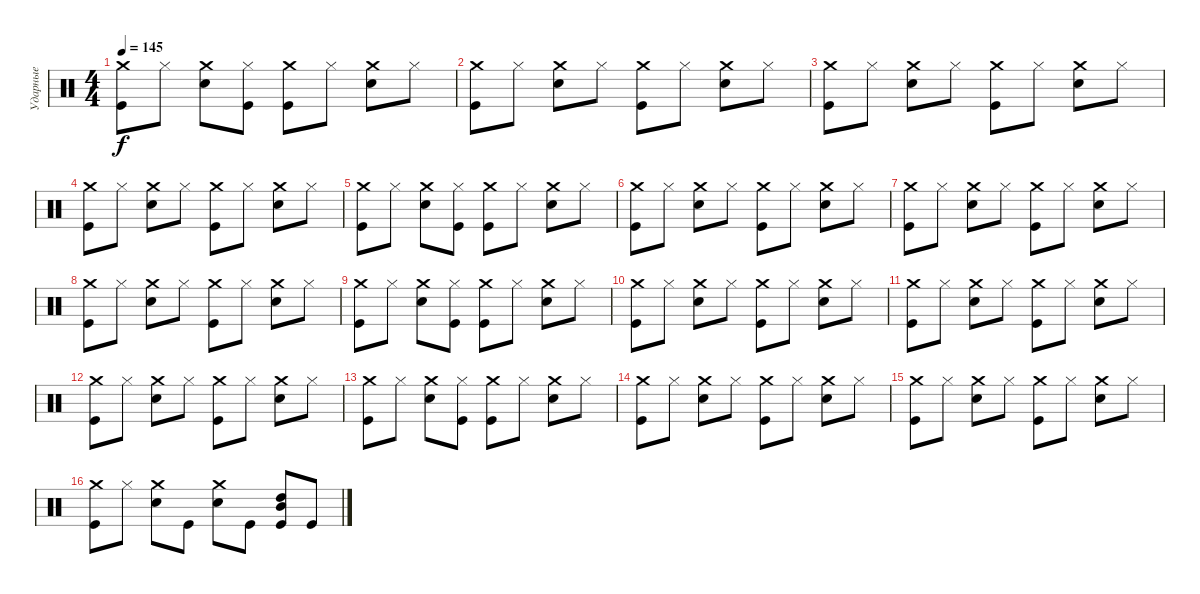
\track ("Ударные" "Ударные") {instrument percussion}
\staff {score}
\articulation defaults
\ts (4 4)
\tempo 145
\clef neutral
\ks c
("Kick (hit)" "Crash medium (hit)").8{dy f} "Hi-Hat (closed)".8 ("Snare (hit) 2" "Crash medium (hit)").8 ("Kick (hit)" "Hi-Hat (closed)").8 ("Kick (hit)" "Crash medium (hit)").8 "Hi-Hat (closed)".8 ("Snare (hit) 2" "Crash medium (hit)").8 "Hi-Hat (closed)".8 |
("Kick (hit)" "Crash medium (hit)").8 "Hi-Hat (closed)".8 ("Snare (hit) 2" "Crash medium (hit)").8 "Hi-Hat (closed)".8 ("Kick (hit)" "Crash medium (hit)").8 "Hi-Hat (closed)".8 ("Snare (hit) 2" "Crash medium (hit)").8 "Hi-Hat (closed)".8 |
("Kick (hit)" "Crash medium (hit)").8 "Hi-Hat (closed)".8 ("Snare (hit) 2" "Crash medium (hit)").8 "Hi-Hat (closed)".8 ("Kick (hit)" "Crash medium (hit)").8 "Hi-Hat (closed)".8 ("Snare (hit) 2" "Crash medium (hit)").8 "Hi-Hat (closed)".8 |
("Kick (hit)" "Crash medium (hit)").8 "Hi-Hat (closed)".8 ("Snare (hit) 2" "Crash medium (hit)").8 "Hi-Hat (closed)".8 ("Kick (hit)" "Crash medium (hit)").8 "Hi-Hat (closed)".8 ("Snare (hit) 2" "Crash medium (hit)").8 "Hi-Hat (closed)".8 |
("Kick (hit)" "Crash medium (hit)").8 "Hi-Hat (closed)".8 ("Snare (hit) 2" "Crash medium (hit)").8 ("Kick (hit)" "Hi-Hat (closed)").8 ("Kick (hit)" "Crash medium (hit)").8 "Hi-Hat (closed)".8 ("Snare (hit) 2" "Crash medium (hit)").8 "Hi-Hat (closed)".8 |
("Kick (hit)" "Crash medium (hit)").8 "Hi-Hat (closed)".8 ("Snare (hit) 2" "Crash medium (hit)").8 "Hi-Hat (closed)".8 ("Kick (hit)" "Crash medium (hit)").8 "Hi-Hat (closed)".8 ("Snare (hit) 2" "Crash medium (hit)").8 "Hi-Hat (closed)".8 |
("Kick (hit)" "Crash medium (hit)").8 "Hi-Hat (closed)".8 ("Snare (hit) 2" "Crash medium (hit)").8 "Hi-Hat (closed)".8 ("Kick (hit)" "Crash medium (hit)").8 "Hi-Hat (closed)".8 ("Snare (hit) 2" "Crash medium (hit)").8 "Hi-Hat (closed)".8 |
("Kick (hit)" "Crash medium (hit)").8 "Hi-Hat (closed)".8 ("Snare (hit) 2" "Crash medium (hit)").8 "Hi-Hat (closed)".8 ("Kick (hit)" "Crash medium (hit)").8 "Hi-Hat (closed)".8 ("Snare (hit) 2" "Crash medium (hit)").8 "Hi-Hat (closed)".8 |
("Kick (hit)" "Crash medium (hit)").8 "Hi-Hat (closed)".8 ("Snare (hit) 2" "Crash medium (hit)").8 ("Kick (hit)" "Hi-Hat (closed)").8 ("Kick (hit)" "Crash medium (hit)").8 "Hi-Hat (closed)".8 ("Snare (hit) 2" "Crash medium (hit)").8 "Hi-Hat (closed)".8 |
("Kick (hit)" "Crash medium (hit)").8 "Hi-Hat (closed)".8 ("Snare (hit) 2" "Crash medium (hit)").8 "Hi-Hat (closed)".8 ("Kick (hit)" "Crash medium (hit)").8 "Hi-Hat (closed)".8 ("Snare (hit) 2" "Crash medium (hit)").8 "Hi-Hat (closed)".8 |
("Kick (hit)" "Crash medium (hit)").8 "Hi-Hat (closed)".8 ("Snare (hit) 2" "Crash medium (hit)").8 "Hi-Hat (closed)".8 ("Kick (hit)" "Crash medium (hit)").8 "Hi-Hat (closed)".8 ("Snare (hit) 2" "Crash medium (hit)").8 "Hi-Hat (closed)".8 |
("Kick (hit)" "Crash medium (hit)").8 "Hi-Hat (closed)".8 ("Snare (hit) 2" "Crash medium (hit)").8 "Hi-Hat (closed)".8 ("Kick (hit)" "Crash medium (hit)").8 "Hi-Hat (closed)".8 ("Snare (hit) 2" "Crash medium (hit)").8 "Hi-Hat (closed)".8 |
("Kick (hit)" "Crash medium (hit)").8 "Hi-Hat (closed)".8 ("Snare (hit) 2" "Crash medium (hit)").8 ("Kick (hit)" "Hi-Hat (closed)").8 ("Kick (hit)" "Crash medium (hit)").8 "Hi-Hat (closed)".8 ("Snare (hit) 2" "Crash medium (hit)").8 "Hi-Hat (closed)".8 |
("Kick (hit)" "Crash medium (hit)").8 "Hi-Hat (closed)".8 ("Snare (hit) 2" "Crash medium (hit)").8 "Hi-Hat (closed)".8 ("Kick (hit)" "Crash medium (hit)").8 "Hi-Hat (closed)".8 ("Snare (hit) 2" "Crash medium (hit)").8 "Hi-Hat (closed)".8 |
("Kick (hit)" "Crash medium (hit)").8 "Hi-Hat (closed)".8 ("Snare (hit) 2" "Crash medium (hit)").8 "Hi-Hat (closed)".8 ("Kick (hit)" "Crash medium (hit)").8 "Hi-Hat (closed)".8 ("Snare (hit) 2" "Crash medium (hit)").8 "Hi-Hat (closed)".8 |
("Kick (hit)" "Crash medium (hit)").8 "Hi-Hat (closed)".8 ("Snare (hit) 2" "Crash medium (hit)").8 "Kick (hit)".8 ("Snare (hit) 2" "Crash medium (hit)").8 "Kick (hit)".8 ("Kick (hit)" "Mid Tom (hit)" "High Tom (hit)").8{bd 60} "Kick (hit)".8
